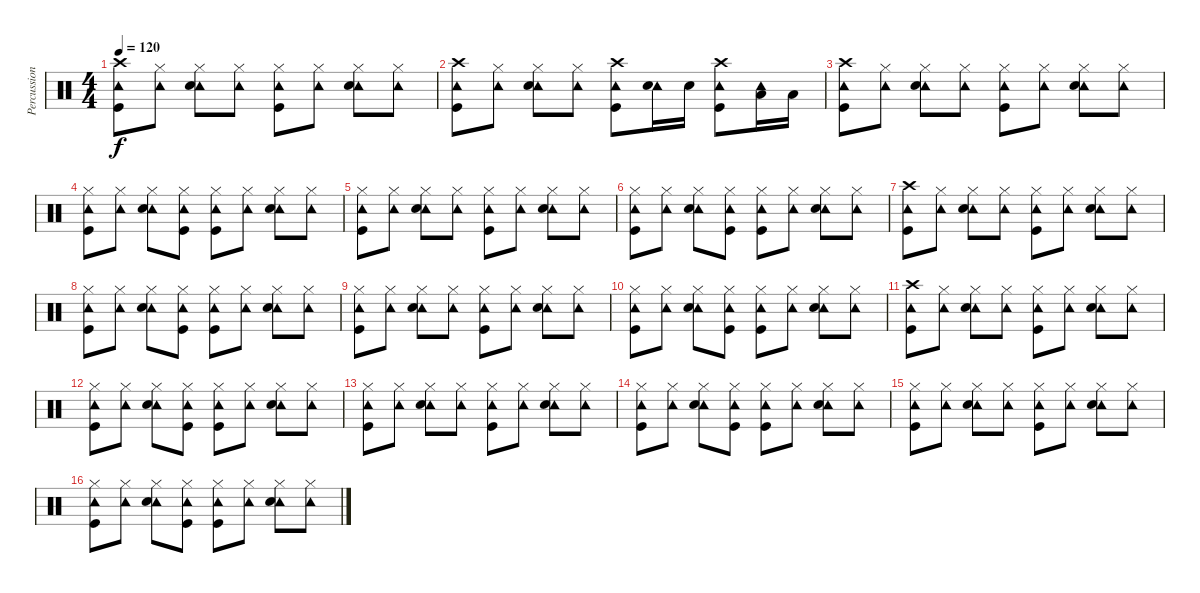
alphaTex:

\track ("Percussion" "Percussion") {instrument percussion}
\staff {score}
\articulation defaults
\ts (4 4)
\tempo 120
\clef neutral
\ks c
("Crash high (hit)" "Tambourine (hit)" "Kick (hit)").8{dy f} ("Hi-Hat (closed)" "Tambourine (hit)").8 ("Hi-Hat (closed)" "Tambourine (hit)" "Snare (hit) 2").8 ("Hi-Hat (closed)" "Tambourine (hit)").8 ("Hi-Hat (closed)" "Tambourine (hit)" "Kick (hit)").8 ("Hi-Hat (closed)" "Tambourine (hit)").8 ("Hi-Hat (closed)" "Tambourine (hit)" "Snare (hit) 2").8 ("Hi-Hat (closed)" "Tambourine (hit)").8 |
("Crash high (hit)" "Tambourine (hit)" "Kick (hit)").8 ("Hi-Hat (closed)" "Tambourine (hit)").8 ("Hi-Hat (closed)" "Tambourine (hit)" "Snare (hit) 2").8 ("Hi-Hat (closed)" "Tambourine (hit)").8 ("Crash high (hit)" "Tambourine (hit)" "Kick (hit)").8 ("Tambourine (hit)" "Snare (hit) 2").16 "Snare (hit) 2".16 ("Crash high (hit)" "Tambourine (hit)" "Kick (hit)").8 ("Tambourine (hit)" "Low Floor Tom (hit)").16 "Low Floor Tom (hit)".16 |
("Crash high (hit)" "Tambourine (hit)" "Kick (hit)").8 ("Hi-Hat (closed)" "Tambourine (hit)").8 ("Hi-Hat (closed)" "Tambourine (hit)" "Snare (hit) 2").8 ("Hi-Hat (closed)" "Tambourine (hit)").8 ("Hi-Hat (closed)" "Tambourine (hit)" "Kick (hit)").8 ("Hi-Hat (closed)" "Tambourine (hit)").8 ("Hi-Hat (closed)" "Tambourine (hit)" "Snare (hit) 2").8 ("Hi-Hat (closed)" "Tambourine (hit)").8 |
("Hi-Hat (closed)" "Tambourine (hit)" "Kick (hit)").8 ("Hi-Hat (closed)" "Tambourine (hit)").8 ("Hi-Hat (closed)" "Tambourine (hit)" "Snare (hit) 2").8 ("Hi-Hat (closed)" "Tambourine (hit)" "Kick (hit)").8 ("Hi-Hat (closed)" "Tambourine (hit)" "Kick (hit)").8 ("Hi-Hat (closed)" "Tambourine (hit)").8 ("Hi-Hat (closed)" "Tambourine (hit)" "Snare (hit) 2").8 ("Hi-Hat (closed)" "Tambourine (hit)").8 |
("Hi-Hat (closed)" "Tambourine (hit)" "Kick (hit)").8 ("Hi-Hat (closed)" "Tambourine (hit)").8 ("Hi-Hat (closed)" "Tambourine (hit)" "Snare (hit) 2").8 ("Hi-Hat (closed)" "Tambourine (hit)").8 ("Hi-Hat (closed)" "Tambourine (hit)" "Kick (hit)").8 ("Hi-Hat (closed)" "Tambourine (hit)").8 ("Hi-Hat (closed)" "Tambourine (hit)" "Snare (hit) 2").8 ("Hi-Hat (closed)" "Tambourine (hit)").8 |
("Hi-Hat (closed)" "Tambourine (hit)" "Kick (hit)").8 ("Hi-Hat (closed)" "Tambourine (hit)").8 ("Hi-Hat (closed)" "Tambourine (hit)" "Snare (hit) 2").8 ("Hi-Hat (closed)" "Tambourine (hit)" "Kick (hit)").8 ("Hi-Hat (closed)" "Tambourine (hit)" "Kick (hit)").8 ("Hi-Hat (closed)" "Tambourine (hit)").8 ("Hi-Hat (closed)" "Tambourine (hit)" "Snare (hit) 2").8 ("Hi-Hat (closed)" "Tambourine (hit)").8 |
("Crash high (hit)" "Tambourine (hit)" "Kick (hit)").8 ("Hi-Hat (closed)" "Tambourine (hit)").8 ("Hi-Hat (closed)" "Tambourine (hit)" "Snare (hit) 2").8 ("Hi-Hat (closed)" "Tambourine (hit)").8 ("Hi-Hat (closed)" "Tambourine (hit)" "Kick (hit)").8 ("Hi-Hat (closed)" "Tambourine (hit)").8 ("Hi-Hat (closed)" "Tambourine (hit)" "Snare (hit) 2").8 ("Hi-Hat (closed)" "Tambourine (hit)").8 |
("Hi-Hat (closed)" "Tambourine (hit)" "Kick (hit)").8 ("Hi-Hat (closed)" "Tambourine (hit)").8 ("Hi-Hat (closed)" "Tambourine (hit)" "Snare (hit) 2").8 ("Hi-Hat (closed)" "Tambourine (hit)" "Kick (hit)").8 ("Hi-Hat (closed)" "Tambourine (hit)" "Kick (hit)").8 ("Hi-Hat (closed)" "Tambourine (hit)").8 ("Hi-Hat (closed)" "Tambourine (hit)" "Snare (hit) 2").8 ("Hi-Hat (closed)" "Tambourine (hit)").8 |
("Hi-Hat (closed)" "Tambourine (hit)" "Kick (hit)").8 ("Hi-Hat (closed)" "Tambourine (hit)").8 ("Hi-Hat (closed)" "Tambourine (hit)" "Snare (hit) 2").8 ("Hi-Hat (closed)" "Tambourine (hit)").8 ("Hi-Hat (closed)" "Tambourine (hit)" "Kick (hit)").8 ("Hi-Hat (closed)" "Tambourine (hit)").8 ("Hi-Hat (closed)" "Tambourine (hit)" "Snare (hit) 2").8 ("Hi-Hat (closed)" "Tambourine (hit)").8 |
("Hi-Hat (closed)" "Tambourine (hit)" "Kick (hit)").8 ("Hi-Hat (closed)" "Tambourine (hit)").8 ("Hi-Hat (closed)" "Tambourine (hit)" "Snare (hit) 2").8 ("Hi-Hat (closed)" "Tambourine (hit)" "Kick (hit)").8 ("Hi-Hat (closed)" "Tambourine (hit)" "Kick (hit)").8 ("Hi-Hat (closed)" "Tambourine (hit)").8 ("Hi-Hat (closed)" "Tambourine (hit)" "Snare (hit) 2").8 ("Hi-Hat (closed)" "Tambourine (hit)").8 |
("Crash high (hit)" "Tambourine (hit)" "Kick (hit)").8 ("Hi-Hat (closed)" "Tambourine (hit)").8 ("Hi-Hat (closed)" "Tambourine (hit)" "Snare (hit) 2").8 ("Hi-Hat (closed)" "Tambourine (hit)").8 ("Hi-Hat (closed)" "Tambourine (hit)" "Kick (hit)").8 ("Hi-Hat (closed)" "Tambourine (hit)").8 ("Hi-Hat (closed)" "Tambourine (hit)" "Snare (hit) 2").8 ("Hi-Hat (closed)" "Tambourine (hit)").8 |
("Hi-Hat (closed)" "Tambourine (hit)" "Kick (hit)").8 ("Hi-Hat (closed)" "Tambourine (hit)").8 ("Hi-Hat (closed)" "Tambourine (hit)" "Snare (hit) 2").8 ("Hi-Hat (closed)" "Tambourine (hit)" "Kick (hit)").8 ("Hi-Hat (closed)" "Tambourine (hit)" "Kick (hit)").8 ("Hi-Hat (closed)" "Tambourine (hit)").8 ("Hi-Hat (closed)" "Tambourine (hit)" "Snare (hit) 2").8 ("Hi-Hat (closed)" "Tambourine (hit)").8 |
("Hi-Hat (closed)" "Tambourine (hit)" "Kick (hit)").8 ("Hi-Hat (closed)" "Tambourine (hit)").8 ("Hi-Hat (closed)" "Tambourine (hit)" "Snare (hit) 2").8 ("Hi-Hat (closed)" "Tambourine (hit)").8 ("Hi-Hat (closed)" "Tambourine (hit)" "Kick (hit)").8 ("Hi-Hat (closed)" "Tambourine (hit)").8 ("Hi-Hat (closed)" "Tambourine (hit)" "Snare (hit) 2").8 ("Hi-Hat (closed)" "Tambourine (hit)").8 |
("Hi-Hat (closed)" "Tambourine (hit)" "Kick (hit)").8 ("Hi-Hat (closed)" "Tambourine (hit)").8 ("Hi-Hat (closed)" "Tambourine (hit)" "Snare (hit) 2").8 ("Hi-Hat (closed)" "Tambourine (hit)" "Kick (hit)").8 ("Hi-Hat (closed)" "Tambourine (hit)" "Kick (hit)").8 ("Hi-Hat (closed)" "Tambourine (hit)").8 ("Hi-Hat (closed)" "Tambourine (hit)" "Snare (hit) 2").8 ("Hi-Hat (closed)" "Tambourine (hit)").8 |
("Hi-Hat (closed)" "Tambourine (hit)" "Kick (hit)").8 ("Hi-Hat (closed)" "Tambourine (hit)").8 ("Hi-Hat (closed)" "Tambourine (hit)" "Snare (hit) 2").8 ("Hi-Hat (closed)" "Tambourine (hit)").8 ("Hi-Hat (closed)" "Tambourine (hit)" "Kick (hit)").8 ("Hi-Hat (closed)" "Tambourine (hit)").8 ("Hi-Hat (closed)" "Tambourine (hit)" "Snare (hit) 2").8 ("Hi-Hat (closed)" "Tambourine (hit)").8 |
("Hi-Hat (closed)" "Tambourine (hit)" "Kick (hit)").8 ("Hi-Hat (closed)" "Tambourine (hit)").8 ("Hi-Hat (closed)" "Tambourine (hit)" "Snare (hit) 2").8 ("Hi-Hat (closed)" "Tambourine (hit)" "Kick (hit)").8 ("Hi-Hat (closed)" "Tambourine (hit)" "Kick (hit)").8 ("Hi-Hat (closed)" "Tambourine (hit)").8 ("Hi-Hat (closed)" "Tambourine (hit)" "Snare (hit) 2").8 ("Hi-Hat (closed)" "Tambourine (hit)").8
